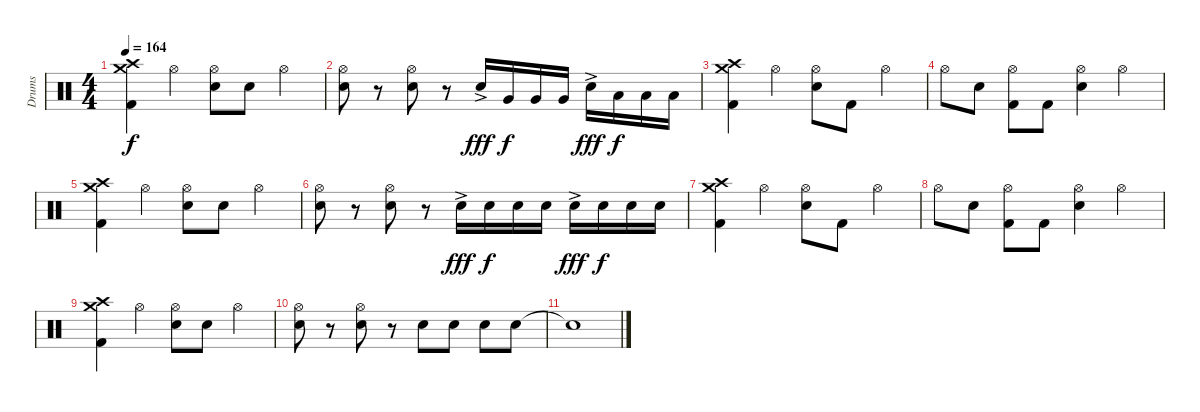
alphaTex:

\track ("Drums" "Drums") {instrument percussion}
\staff {score}
\articulation defaults
\ts (4 4)
\tempo 164
\clef neutral
\ks c
("Crash medium (hit)" "Crash high (hit)" "Kick (hit) 2").4{dy f} "Hi-Hat (open)".4 ("Hi-Hat (open)" "Electric Snare (hit)").8 "Electric Snare (hit)".8 "Hi-Hat (open)".4 |
("Hi-Hat (open)" "Electric Snare (hit)").8 r.8 ("Hi-Hat (open)" "Electric Snare (hit)").8 r.8 "Electric Snare (hit)"{ac}.16{dy fff} "Very Low Tom (hit)".16{dy f} "Very Low Tom (hit)".16 "Very Low Tom (hit)".16 "Electric Snare (hit)"{ac}.16{dy fff} "Low Floor Tom (hit)".16{dy f} "Low Floor Tom (hit)".16 "Low Floor Tom (hit)".16 |
("Crash medium (hit)" "Crash high (hit)" "Kick (hit) 2").4 "Hi-Hat (open)".4 ("Hi-Hat (open)" "Electric Snare (hit)").8 "Kick (hit) 2".8 "Hi-Hat (open)".4 |
"Hi-Hat (open)".8 "Electric Snare (hit)".8 ("Hi-Hat (open)" "Kick (hit) 2").8 "Kick (hit) 2".8 ("Hi-Hat (open)" "Electric Snare (hit)").4 "Hi-Hat (open)".4 |
("Crash medium (hit)" "Crash high (hit)" "Kick (hit) 2").4 "Hi-Hat (open)".4 ("Hi-Hat (open)" "Electric Snare (hit)").8 "Electric Snare (hit)".8 "Hi-Hat (open)".4 |
("Hi-Hat (open)" "Electric Snare (hit)").8 r.8 ("Hi-Hat (open)" "Electric Snare (hit)").8 r.8 "Electric Snare (hit)"{ac}.16{dy fff} "Electric Snare (hit)".16{dy f} "Electric Snare (hit)".16 "Electric Snare (hit)".16 "Electric Snare (hit)"{ac}.16{dy fff} "Electric Snare (hit)".16{dy f} "Electric Snare (hit)".16 "Electric Snare (hit)".16 |
("Crash medium (hit)" "Crash high (hit)" "Kick (hit) 2").4 "Hi-Hat (open)".4 ("Hi-Hat (open)" "Electric Snare (hit)").8 "Kick (hit) 2".8 "Hi-Hat (open)".4 |
"Hi-Hat (open)".8 "Electric Snare (hit)".8 ("Hi-Hat (open)" "Kick (hit) 2").8 "Kick (hit) 2".8 ("Hi-Hat (open)" "Electric Snare (hit)").4 "Hi-Hat (open)".4 |
("Crash medium (hit)" "Crash high (hit)" "Kick (hit) 2").4 "Hi-Hat (open)".4 ("Hi-Hat (open)" "Electric Snare (hit)").8 "Electric Snare (hit)".8 "Hi-Hat (open)".4 |
("Hi-Hat (open)" "Electric Snare (hit)").8 r.8 ("Hi-Hat (open)" "Electric Snare (hit)").8 r.8 "Electric Snare (hit)".8 "Electric Snare (hit)".8 "Electric Snare (hit)".8 "Electric Snare (hit)".8 |
"Snare (hit)"{t}.1
